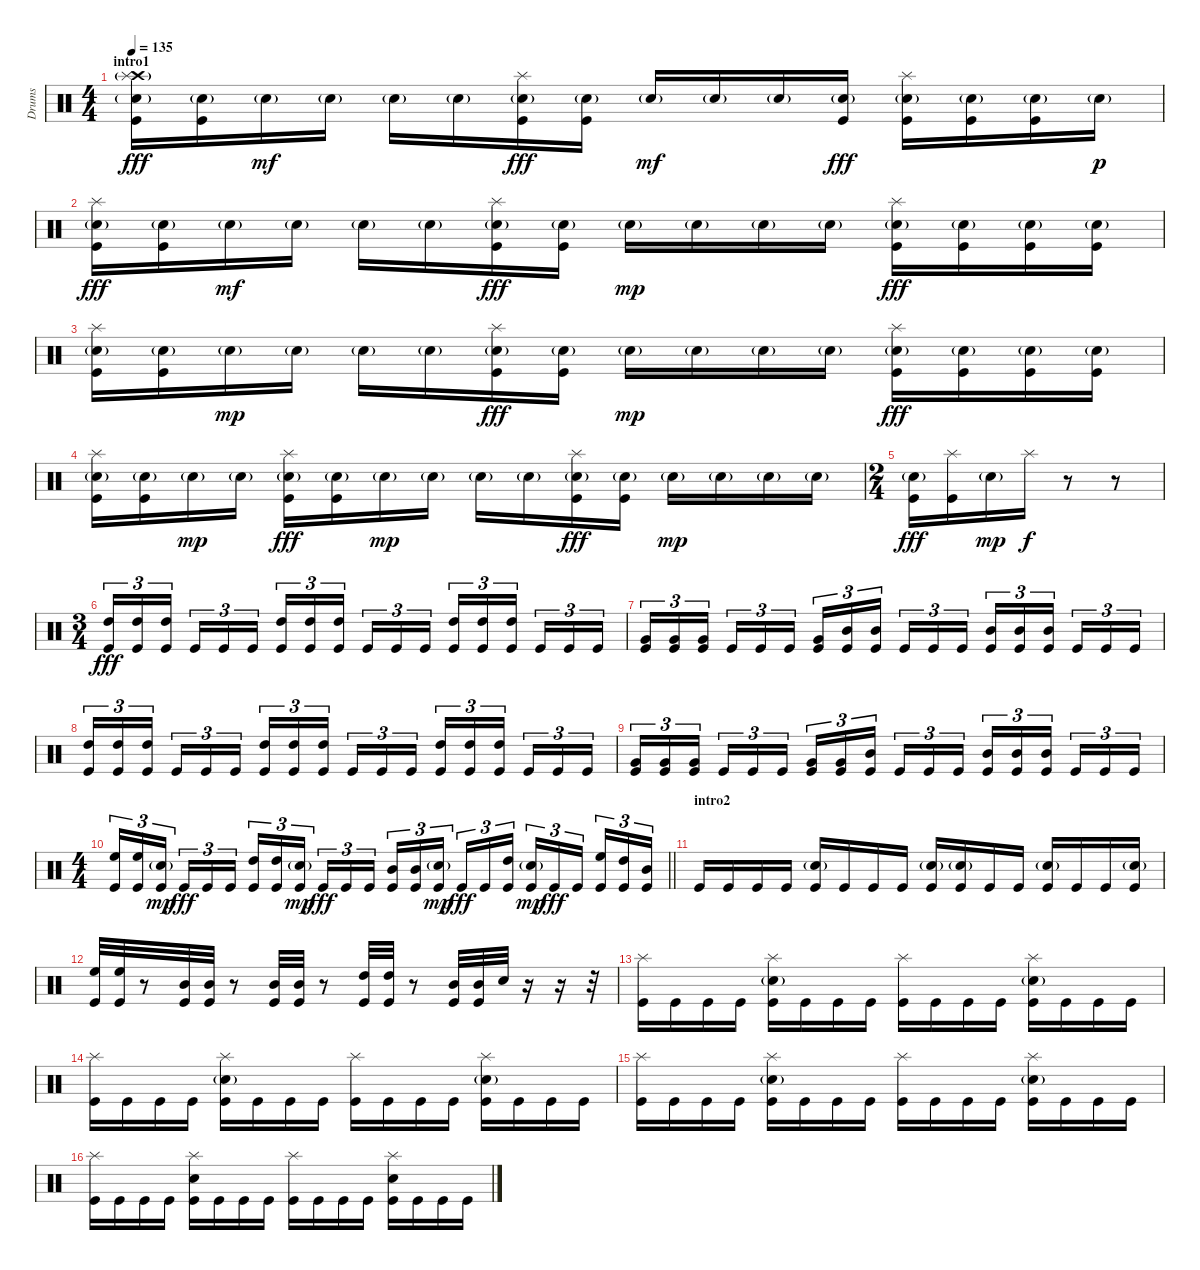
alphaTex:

\track ("Drums" "Drums") {instrument percussion}
\staff {score}
\articulation defaults
\ts (4 4)
\section ("" "intro1")
\tempo 135
\clef neutral
\ks c
("Crash high (hit)"{g} "Splash (hit)" "Electric Snare (hit)"{g} "Kick (hit)").16{dy fff} ("Electric Snare (hit)"{g} "Kick (hit)").16 "Electric Snare (hit)"{g}.16{dy mf} "Electric Snare (hit)"{g}.16 "Electric Snare (hit)"{g}.16 "Electric Snare (hit)"{g}.16 ("Splash (hit)" "Electric Snare (hit)"{g} "Kick (hit)").16{dy fff} ("Electric Snare (hit)"{g} "Kick (hit)").16 "Electric Snare (hit)"{g}.16{dy mf} "Electric Snare (hit)"{g}.16 "Electric Snare (hit)"{g}.16 ("Electric Snare (hit)"{g} "Kick (hit)").16{dy fff} ("Splash (hit)" "Electric Snare (hit)"{g} "Kick (hit)").16 ("Electric Snare (hit)"{g} "Kick (hit)").16 ("Electric Snare (hit)"{g} "Kick (hit)").16 "Electric Snare (hit)"{g}.16{dy p} |
("Splash (hit)" "Electric Snare (hit)"{g} "Kick (hit)").16{dy fff} ("Electric Snare (hit)"{g} "Kick (hit)").16 "Electric Snare (hit)"{g}.16{dy mf} "Electric Snare (hit)"{g}.16 "Electric Snare (hit)"{g}.16 "Electric Snare (hit)"{g}.16 ("Splash (hit)" "Electric Snare (hit)"{g} "Kick (hit)").16{dy fff} ("Electric Snare (hit)"{g} "Kick (hit)").16 "Electric Snare (hit)"{g}.16{dy mp} "Electric Snare (hit)"{g}.16 "Electric Snare (hit)"{g}.16 "Electric Snare (hit)"{g}.16 ("Splash (hit)" "Electric Snare (hit)"{g} "Kick (hit)").16{dy fff} ("Electric Snare (hit)"{g} "Kick (hit)").16 ("Electric Snare (hit)"{g} "Kick (hit)").16 ("Electric Snare (hit)"{g} "Kick (hit)").16 |
("Splash (hit)" "Electric Snare (hit)"{g} "Kick (hit)").16 ("Electric Snare (hit)"{g} "Kick (hit)").16 "Electric Snare (hit)"{g}.16{dy mp} "Electric Snare (hit)"{g}.16 "Electric Snare (hit)"{g}.16 "Electric Snare (hit)"{g}.16 ("Splash (hit)" "Electric Snare (hit)"{g} "Kick (hit)").16{dy fff} ("Electric Snare (hit)"{g} "Kick (hit)").16 "Electric Snare (hit)"{g}.16{dy mp} "Electric Snare (hit)"{g}.16 "Electric Snare (hit)"{g}.16 "Electric Snare (hit)"{g}.16 ("Splash (hit)" "Electric Snare (hit)"{g} "Kick (hit)").16{dy fff} ("Electric Snare (hit)"{g} "Kick (hit)").16 ("Electric Snare (hit)"{g} "Kick (hit)").16 ("Electric Snare (hit)"{g} "Kick (hit)").16 |
("Splash (hit)" "Electric Snare (hit)"{g} "Kick (hit)").16 ("Electric Snare (hit)"{g} "Kick (hit)").16 "Electric Snare (hit)"{g}.16{dy mp} "Electric Snare (hit)"{g}.16 ("Splash (hit)" "Electric Snare (hit)"{g} "Kick (hit)").16{dy fff} ("Electric Snare (hit)"{g} "Kick (hit)").16 "Electric Snare (hit)"{g}.16{dy mp} "Electric Snare (hit)"{g}.16 "Electric Snare (hit)"{g}.16 "Electric Snare (hit)"{g}.16 ("Splash (hit)" "Electric Snare (hit)"{g} "Kick (hit)").16{dy fff} ("Electric Snare (hit)"{g} "Kick (hit)").16 "Electric Snare (hit)"{g}.16{dy mp} "Electric Snare (hit)"{g}.16 "Electric Snare (hit)"{g}.16 "Electric Snare (hit)"{g}.16 |
\ts (2 4)
("Electric Snare (hit)"{g} "Kick (hit)").16{dy fff} ("Splash (hit)" "Kick (hit)").16 "Electric Snare (hit)"{g}.16{dy mp} "Splash (hit)".16{dy f} r.8 r.8 |
\ts (3 4)
("Kick (hit)" "High Tom (hit)").16{tu (3 2) dy fff} ("Kick (hit)" "High Tom (hit)").16{tu (3 2)} ("Kick (hit)" "High Tom (hit)").16{tu (3 2) beam splitsecondary} "Kick (hit)".16{tu (3 2)} "Kick (hit)".16{tu (3 2)} "Kick (hit)".16{tu (3 2)} ("Kick (hit)" "High Tom (hit)").16{tu (3 2)} ("Kick (hit)" "High Tom (hit)").16{tu (3 2)} ("Kick (hit)" "High Tom (hit)").16{tu (3 2) beam splitsecondary} "Kick (hit)".16{tu (3 2)} "Kick (hit)".16{tu (3 2)} "Kick (hit)".16{tu (3 2)} ("Kick (hit)" "High Tom (hit)").16{tu (3 2)} ("Kick (hit)" "High Tom (hit)").16{tu (3 2)} ("Kick (hit)" "High Tom (hit)").16{tu (3 2) beam splitsecondary} "Kick (hit)".16{tu (3 2)} "Kick (hit)".16{tu (3 2)} "Kick (hit)".16{tu (3 2)} |
("Kick (hit)" "Very Low Tom (hit)").16{tu (3 2)} ("Kick (hit)" "Very Low Tom (hit)").16{tu (3 2)} ("Kick (hit)" "Very Low Tom (hit)").16{tu (3 2) beam splitsecondary} "Kick (hit)".16{tu (3 2)} "Kick (hit)".16{tu (3 2)} "Kick (hit)".16{tu (3 2)} ("Kick (hit)" "Very Low Tom (hit)").16{tu (3 2)} ("Kick (hit)" "Mid Tom (hit)").16{tu (3 2)} ("Kick (hit)" "Mid Tom (hit)").16{tu (3 2) beam splitsecondary} "Kick (hit)".16{tu (3 2)} "Kick (hit)".16{tu (3 2)} "Kick (hit)".16{tu (3 2)} ("Kick (hit)" "Mid Tom (hit)").16{tu (3 2)} ("Kick (hit)" "Mid Tom (hit)").16{tu (3 2)} ("Kick (hit)" "Mid Tom (hit)").16{tu (3 2) beam splitsecondary} "Kick (hit)".16{tu (3 2)} "Kick (hit)".16{tu (3 2)} "Kick (hit)".16{tu (3 2)} |
("Kick (hit)" "High Tom (hit)").16{tu (3 2)} ("Kick (hit)" "High Tom (hit)").16{tu (3 2)} ("Kick (hit)" "High Tom (hit)").16{tu (3 2) beam splitsecondary} "Kick (hit)".16{tu (3 2)} "Kick (hit)".16{tu (3 2)} "Kick (hit)".16{tu (3 2)} ("Kick (hit)" "High Tom (hit)").16{tu (3 2)} ("Kick (hit)" "High Tom (hit)").16{tu (3 2)} ("Kick (hit)" "High Tom (hit)").16{tu (3 2) beam splitsecondary} "Kick (hit)".16{tu (3 2)} "Kick (hit)".16{tu (3 2)} "Kick (hit)".16{tu (3 2)} ("Kick (hit)" "High Tom (hit)").16{tu (3 2)} ("Kick (hit)" "High Tom (hit)").16{tu (3 2)} ("Kick (hit)" "High Tom (hit)").16{tu (3 2) beam splitsecondary} "Kick (hit)".16{tu (3 2)} "Kick (hit)".16{tu (3 2)} "Kick (hit)".16{tu (3 2)} |
("Kick (hit)" "Very Low Tom (hit)").16{tu (3 2)} ("Kick (hit)" "Very Low Tom (hit)").16{tu (3 2)} ("Kick (hit)" "Very Low Tom (hit)").16{tu (3 2) beam splitsecondary} "Kick (hit)".16{tu (3 2)} "Kick (hit)".16{tu (3 2)} "Kick (hit)".16{tu (3 2)} ("Kick (hit)" "Very Low Tom (hit)").16{tu (3 2)} ("Kick (hit)" "Very Low Tom (hit)").16{tu (3 2)} ("Kick (hit)" "Mid Tom (hit)").16{tu (3 2) beam splitsecondary} "Kick (hit)".16{tu (3 2)} "Kick (hit)".16{tu (3 2)} "Kick (hit)".16{tu (3 2)} ("Kick (hit)" "Mid Tom (hit)").16{tu (3 2)} ("Kick (hit)" "Mid Tom (hit)").16{tu (3 2)} ("Kick (hit)" "Mid Tom (hit)").16{tu (3 2) beam splitsecondary} "Kick (hit)".16{tu (3 2)} "Kick (hit)".16{tu (3 2)} "Kick (hit)".16{tu (3 2)} |
\ts (4 4)
\barLineRight lightlight
("Kick (hit)" "High Floor Tom (hit)").16{tu (3 2)} ("Kick (hit)" "High Floor Tom (hit)").16{tu (3 2)} ("Kick (hit)" "Electric Snare (hit)"{g}).16{tu (3 2) dy mp beam splitsecondary} "Kick (hit)".16{tu (3 2) dy fff} "Kick (hit)".16{tu (3 2)} "Kick (hit)".16{tu (3 2)} ("Kick (hit)" "High Tom (hit)").16{tu (3 2)} ("Kick (hit)" "High Tom (hit)").16{tu (3 2)} ("Kick (hit)" "Electric Snare (hit)"{g}).16{tu (3 2) dy mp beam splitsecondary} "Kick (hit)".16{tu (3 2) dy fff} "Kick (hit)".16{tu (3 2)} "Kick (hit)".16{tu (3 2)} ("Kick (hit)" "Mid Tom (hit)").16{tu (3 2)} ("Kick (hit)" "Mid Tom (hit)").16{tu (3 2)} ("Kick (hit)" "Electric Snare (hit)"{g}).16{tu (3 2) dy mp beam splitsecondary} "Kick (hit)".16{tu (3 2) dy fff} "Kick (hit)".16{tu (3 2)} ("Kick (hit)" "High Tom (hit)").16{tu (3 2)} ("Kick (hit)" "Electric Snare (hit)"{g}).16{tu (3 2) dy mp} "Kick (hit)".16{tu (3 2) dy fff} "Kick (hit)".16{tu (3 2) beam splitsecondary} ("Kick (hit)" "High Floor Tom (hit)").16{tu (3 2)} ("Kick (hit)" "High Tom (hit)").16{tu (3 2)} ("Kick (hit)" "Mid Tom (hit)").16{tu (3 2)} |
\section ("" "intro2")
"Kick (hit)".16 "Kick (hit)".16 "Kick (hit)".16 "Kick (hit)".16 ("Electric Snare (hit)"{g} "Kick (hit)").16 "Kick (hit)".16 "Kick (hit)".16 "Kick (hit)".16 ("Electric Snare (hit)"{g} "Kick (hit)").16 ("Electric Snare (hit)"{g} "Kick (hit)").16 "Kick (hit)".16 "Kick (hit)".16 ("Electric Snare (hit)"{g} "Kick (hit)").16 "Kick (hit)".16 "Kick (hit)".16 ("Electric Snare (hit)"{g} "Kick (hit)").16 |
("High Floor Tom (hit)" "Kick (hit)").32 ("High Floor Tom (hit)" "Kick (hit)").32 r.8 ("Mid Tom (hit)" "Kick (hit)").32 ("Mid Tom (hit)" "Kick (hit)").32 r.8 ("Mid Tom (hit)" "Kick (hit)").32 ("Mid Tom (hit)" "Kick (hit)").32 r.8 ("High Tom (hit)" "Kick (hit)").32 ("High Tom (hit)" "Kick (hit)").32 r.8 ("Mid Tom (hit)" "Kick (hit)").32 ("Mid Tom (hit)" "Kick (hit)").32 "Electric Snare (hit)".32 r.16 r.16 r.32 |
("Splash (hit)" "Kick (hit)").16 "Kick (hit)".16 "Kick (hit)".16 "Kick (hit)".16 ("Splash (hit)" "Electric Snare (hit)"{g} "Kick (hit)").16 "Kick (hit)".16 "Kick (hit)".16 "Kick (hit)".16 ("Splash (hit)" "Kick (hit)").16 "Kick (hit)".16 "Kick (hit)".16 "Kick (hit)".16 ("Splash (hit)" "Electric Snare (hit)"{g} "Kick (hit)").16 "Kick (hit)".16 "Kick (hit)".16 "Kick (hit)".16 |
("Splash (hit)" "Kick (hit)").16 "Kick (hit)".16 "Kick (hit)".16 "Kick (hit)".16 ("Splash (hit)" "Electric Snare (hit)"{g} "Kick (hit)").16 "Kick (hit)".16 "Kick (hit)".16 "Kick (hit)".16 ("Splash (hit)" "Kick (hit)").16 "Kick (hit)".16 "Kick (hit)".16 "Kick (hit)".16 ("Splash (hit)" "Electric Snare (hit)"{g} "Kick (hit)").16 "Kick (hit)".16 "Kick (hit)".16 "Kick (hit)".16 |
("Splash (hit)" "Kick (hit)").16 "Kick (hit)".16 "Kick (hit)".16 "Kick (hit)".16 ("Splash (hit)" "Electric Snare (hit)"{g} "Kick (hit)").16 "Kick (hit)".16 "Kick (hit)".16 "Kick (hit)".16 ("Splash (hit)" "Kick (hit)").16 "Kick (hit)".16 "Kick (hit)".16 "Kick (hit)".16 ("Splash (hit)" "Electric Snare (hit)"{g} "Kick (hit)").16 "Kick (hit)".16 "Kick (hit)".16 "Kick (hit)".16 |
("Splash (hit)" "Kick (hit)").16 "Kick (hit)".16 "Kick (hit)".16 "Kick (hit)".16 ("Splash (hit)" "Electric Snare (hit)" "Kick (hit)").16 "Kick (hit)".16 "Kick (hit)".16 "Kick (hit)".16 ("Splash (hit)" "Kick (hit)").16 "Kick (hit)".16 "Kick (hit)".16 "Kick (hit)".16 ("Splash (hit)" "Electric Snare (hit)" "Kick (hit)").16 "Kick (hit)".16 "Kick (hit)".16 "Kick (hit)".16
